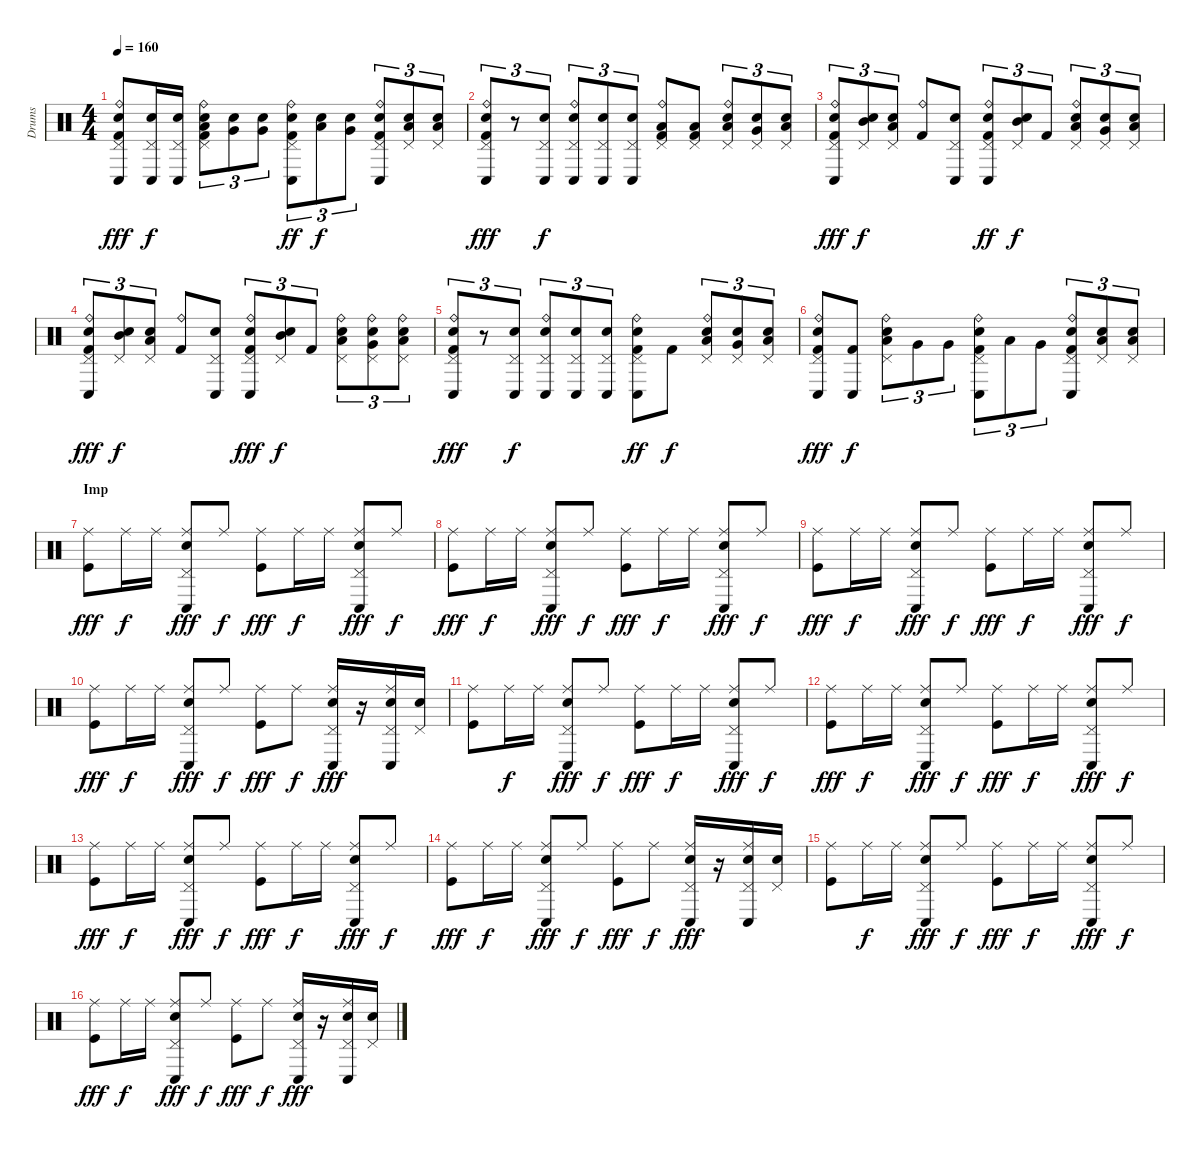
\track ("Drums" "Drums") {instrument percussion}
\staff {score}
\articulation defaults
\ts (4 4)
\tempo 160
\clef neutral
\ks c
("Ride (bell)" "Pedal Hi-Hat (hit)" "Conga low (hit)" "Electric Snare (hit)" "Kick (hit) 2").8{dy fff} ("Pedal Hi-Hat (hit)" "Conga low (hit)" "Electric Snare (hit)").16{dy f} ("Pedal Hi-Hat (hit)" "Conga low (hit)" "Electric Snare (hit)").16 ("Ride (bell)" "Pedal Hi-Hat (hit)" "Low Floor Tom (hit)" "Electric Snare (hit)" "Kick (hit) 2").8{tu (3 2)} ("Very Low Tom (hit)" "Electric Snare (hit)").8{tu (3 2)} ("Very Low Tom (hit)" "Electric Snare (hit)").8{tu (3 2)} ("Ride (bell)" "Pedal Hi-Hat (hit)" "Conga low (hit)" "Electric Snare (hit)" "Kick (hit) 2").8{tu (3 2) dy ff} ("Low Tom (hit)" "Electric Snare (hit)").8{tu (3 2) dy f} ("Very Low Tom (hit)" "Electric Snare (hit)").8{tu (3 2)} ("Ride (bell)" "Pedal Hi-Hat (hit)" "Conga low (hit)" "Electric Snare (hit)" "Kick (hit) 2").8{tu (3 2)} ("Pedal Hi-Hat (hit)" "Low Floor Tom (hit)" "Electric Snare (hit)").8{tu (3 2)} ("Pedal Hi-Hat (hit)" "Low Floor Tom (hit)" "Electric Snare (hit)").8{tu (3 2)} |
("Ride (bell)" "Pedal Hi-Hat (hit)" "Conga low (hit)" "Electric Snare (hit)" "Kick (hit) 2").8{tu (3 2) dy fff} r.8{tu (3 2)} ("Pedal Hi-Hat (hit)" "Conga low (hit)" "Electric Snare (hit)").8{tu (3 2) dy f} ("Ride (bell)" "Pedal Hi-Hat (hit)" "Conga low (hit)" "Electric Snare (hit)").8{tu (3 2)} ("Pedal Hi-Hat (hit)" "Conga low (hit)" "Electric Snare (hit)").8{tu (3 2)} ("Pedal Hi-Hat (hit)" "Conga low (hit)" "Electric Snare (hit)").8{tu (3 2)} ("Ride (bell)" "Pedal Hi-Hat (hit)" "Low Floor Tom (hit)" "Kick (hit) 2").8 ("Pedal Hi-Hat (hit)" "Low Floor Tom (hit)" "Kick (hit) 2").8 ("Ride (bell)" "Pedal Hi-Hat (hit)" "Low Tom (hit)" "Electric Snare (hit)").8{tu (3 2)} ("Pedal Hi-Hat (hit)" "Very Low Tom (hit)" "Electric Snare (hit)").8{tu (3 2)} ("Pedal Hi-Hat (hit)" "Low Floor Tom (hit)" "Electric Snare (hit)").8{tu (3 2)} |
("Ride (bell)" "Pedal Hi-Hat (hit)" "Conga low (hit)" "Electric Snare (hit)" "Kick (hit) 2").8{tu (3 2) dy fff} ("Pedal Hi-Hat (hit)" "Mid Tom (hit)" "Electric Snare (hit)").8{tu (3 2) dy f} ("Pedal Hi-Hat (hit)" "Low Tom (hit)" "Electric Snare (hit)").8{tu (3 2)} ("Ride (bell)" "Kick (hit) 2").8 ("Pedal Hi-Hat (hit)" "Conga low (hit)" "Electric Snare (hit)").8 ("Ride (bell)" "Pedal Hi-Hat (hit)" "Conga low (hit)" "Electric Snare (hit)" "Kick (hit) 2").8{tu (3 2) dy ff} ("Pedal Hi-Hat (hit)" "Mid Tom (hit)" "Electric Snare (hit)").8{tu (3 2) dy f} "Kick (hit) 2".8{tu (3 2)} ("Ride (bell)" "Pedal Hi-Hat (hit)" "Low Tom (hit)" "Electric Snare (hit)").8{tu (3 2)} ("Pedal Hi-Hat (hit)" "Very Low Tom (hit)" "Electric Snare (hit)").8{tu (3 2)} ("Pedal Hi-Hat (hit)" "Low Floor Tom (hit)" "Electric Snare (hit)").8{tu (3 2)} |
("Ride (bell)" "Pedal Hi-Hat (hit)" "Conga low (hit)" "Electric Snare (hit)" "Kick (hit) 2").8{tu (3 2) dy fff} ("Pedal Hi-Hat (hit)" "Mid Tom (hit)" "Electric Snare (hit)").8{tu (3 2) dy f} ("Pedal Hi-Hat (hit)" "Low Tom (hit)" "Electric Snare (hit)").8{tu (3 2)} ("Ride (bell)" "Kick (hit) 2").8 ("Pedal Hi-Hat (hit)" "Conga low (hit)" "Electric Snare (hit)").8 ("Ride (bell)" "Pedal Hi-Hat (hit)" "Conga low (hit)" "Electric Snare (hit)" "Kick (hit) 2").8{tu (3 2) dy fff} ("Pedal Hi-Hat (hit)" "Mid Tom (hit)" "Electric Snare (hit)").8{tu (3 2) dy f} "Kick (hit) 2".8{tu (3 2)} ("Ride (bell)" "Pedal Hi-Hat (hit)" "Low Tom (hit)" "Electric Snare (hit)").8{tu (3 2)} ("Ride (bell)" "Pedal Hi-Hat (hit)" "Very Low Tom (hit)" "Electric Snare (hit)").8{tu (3 2)} ("Ride (bell)" "Pedal Hi-Hat (hit)" "Low Floor Tom (hit)" "Electric Snare (hit)").8{tu (3 2)} |
("Ride (bell)" "Pedal Hi-Hat (hit)" "Conga low (hit)" "Electric Snare (hit)" "Kick (hit) 2").8{tu (3 2) dy fff} r.8{tu (3 2)} ("Pedal Hi-Hat (hit)" "Conga low (hit)" "Electric Snare (hit)").8{tu (3 2) dy f} ("Ride (bell)" "Pedal Hi-Hat (hit)" "Conga low (hit)" "Electric Snare (hit)").8{tu (3 2)} ("Pedal Hi-Hat (hit)" "Conga low (hit)" "Electric Snare (hit)").8{tu (3 2)} ("Pedal Hi-Hat (hit)" "Conga low (hit)" "Electric Snare (hit)").8{tu (3 2)} ("Ride (bell)" "Pedal Hi-Hat (hit)" "Conga low (hit)" "Electric Snare (hit)" "Kick (hit) 2").8{dy ff} "Kick (hit) 2".8{dy f} ("Ride (bell)" "Pedal Hi-Hat (hit)" "Low Tom (hit)" "Electric Snare (hit)").8{tu (3 2)} ("Pedal Hi-Hat (hit)" "Very Low Tom (hit)" "Electric Snare (hit)").8{tu (3 2)} ("Pedal Hi-Hat (hit)" "Low Floor Tom (hit)" "Electric Snare (hit)").8{tu (3 2)} |
("Ride (bell)" "Pedal Hi-Hat (hit)" "Conga low (hit)" "Electric Snare (hit)" "Kick (hit) 2").8{dy fff} ("Conga low (hit)" "Kick (hit) 2").8{dy f} ("Ride (bell)" "Pedal Hi-Hat (hit)" "Low Floor Tom (hit)" "Electric Snare (hit)").8{tu (3 2)} "Very Low Tom (hit)".8{tu (3 2)} "Very Low Tom (hit)".8{tu (3 2)} ("Ride (bell)" "Pedal Hi-Hat (hit)" "Conga low (hit)" "Electric Snare (hit)" "Kick (hit) 2").8{tu (3 2)} "Low Tom (hit)".8{tu (3 2)} "Very Low Tom (hit)".8{tu (3 2)} ("Ride (bell)" "Pedal Hi-Hat (hit)" "Conga low (hit)" "Electric Snare (hit)" "Kick (hit) 2").8{tu (3 2)} ("Pedal Hi-Hat (hit)" "Low Floor Tom (hit)" "Electric Snare (hit)").8{tu (3 2)} ("Pedal Hi-Hat (hit)" "Low Floor Tom (hit)" "Electric Snare (hit)").8{tu (3 2)} |
\section ("" "Imp")
("Ride (middle)" "Kick (hit)").8{dy fff} "Ride (middle)".16{dy f} "Ride (middle)".16 ("Ride (middle)" "Pedal Hi-Hat (hit)" "Conga low (hit)" "Electric Snare (hit)").8{dy fff} "Ride (middle)".8{dy f} ("Ride (middle)" "Kick (hit)").8{dy fff} "Ride (middle)".16{dy f} "Ride (middle)".16 ("Ride (middle)" "Pedal Hi-Hat (hit)" "Conga low (hit)" "Electric Snare (hit)").8{dy fff} "Ride (middle)".8{dy f} |
("Ride (middle)" "Kick (hit)").8{dy fff} "Ride (middle)".16{dy f} "Ride (middle)".16 ("Ride (middle)" "Pedal Hi-Hat (hit)" "Conga low (hit)" "Electric Snare (hit)").8{dy fff} "Ride (middle)".8{dy f} ("Ride (middle)" "Kick (hit)").8{dy fff} "Ride (middle)".16{dy f} "Ride (middle)".16 ("Ride (middle)" "Pedal Hi-Hat (hit)" "Conga low (hit)" "Electric Snare (hit)").8{dy fff} "Ride (middle)".8{dy f} |
("Ride (middle)" "Kick (hit)").8{dy fff} "Ride (middle)".16{dy f} "Ride (middle)".16 ("Ride (middle)" "Pedal Hi-Hat (hit)" "Conga low (hit)" "Electric Snare (hit)").8{dy fff} "Ride (middle)".8{dy f} ("Ride (middle)" "Kick (hit)").8{dy fff} "Ride (middle)".16{dy f} "Ride (middle)".16 ("Ride (middle)" "Pedal Hi-Hat (hit)" "Conga low (hit)" "Electric Snare (hit)").8{dy fff} "Ride (middle)".8{dy f} |
("Ride (middle)" "Kick (hit)").8{dy fff} "Ride (middle)".16{dy f} "Ride (middle)".16 ("Ride (middle)" "Pedal Hi-Hat (hit)" "Conga low (hit)" "Electric Snare (hit)").8{dy fff} "Ride (middle)".8{dy f} ("Ride (middle)" "Kick (hit)").8{dy fff} "Ride (middle)".8{dy f} ("Ride (middle)" "Pedal Hi-Hat (hit)" "Conga low (hit)" "Electric Snare (hit)").16{dy fff} r.16 ("Ride (middle)" "Pedal Hi-Hat (hit)" "Conga low (hit)" "Electric Snare (hit)").16 ("Pedal Hi-Hat (hit)" "Electric Snare (hit)").16 |
("Ride (middle)" "Kick (hit)").8 "Ride (middle)".16{dy f} "Ride (middle)".16 ("Ride (middle)" "Pedal Hi-Hat (hit)" "Conga low (hit)" "Electric Snare (hit)").8{dy fff} "Ride (middle)".8{dy f} ("Ride (middle)" "Kick (hit)").8{dy fff} "Ride (middle)".16{dy f} "Ride (middle)".16 ("Ride (middle)" "Pedal Hi-Hat (hit)" "Conga low (hit)" "Electric Snare (hit)").8{dy fff} "Ride (middle)".8{dy f} |
("Ride (middle)" "Kick (hit)").8{dy fff} "Ride (middle)".16{dy f} "Ride (middle)".16 ("Ride (middle)" "Pedal Hi-Hat (hit)" "Conga low (hit)" "Electric Snare (hit)").8{dy fff} "Ride (middle)".8{dy f} ("Ride (middle)" "Kick (hit)").8{dy fff} "Ride (middle)".16{dy f} "Ride (middle)".16 ("Ride (middle)" "Pedal Hi-Hat (hit)" "Conga low (hit)" "Electric Snare (hit)").8{dy fff} "Ride (middle)".8{dy f} |
("Ride (middle)" "Kick (hit)").8{dy fff} "Ride (middle)".16{dy f} "Ride (middle)".16 ("Ride (middle)" "Pedal Hi-Hat (hit)" "Conga low (hit)" "Electric Snare (hit)").8{dy fff} "Ride (middle)".8{dy f} ("Ride (middle)" "Kick (hit)").8{dy fff} "Ride (middle)".16{dy f} "Ride (middle)".16 ("Ride (middle)" "Pedal Hi-Hat (hit)" "Conga low (hit)" "Electric Snare (hit)").8{dy fff} "Ride (middle)".8{dy f} |
("Ride (middle)" "Kick (hit)").8{dy fff} "Ride (middle)".16{dy f} "Ride (middle)".16 ("Ride (middle)" "Pedal Hi-Hat (hit)" "Conga low (hit)" "Electric Snare (hit)").8{dy fff} "Ride (middle)".8{dy f} ("Ride (middle)" "Kick (hit)").8{dy fff} "Ride (middle)".8{dy f} ("Ride (middle)" "Pedal Hi-Hat (hit)" "Conga low (hit)" "Electric Snare (hit)").16{dy fff} r.16 ("Ride (middle)" "Pedal Hi-Hat (hit)" "Conga low (hit)" "Electric Snare (hit)").16 ("Pedal Hi-Hat (hit)" "Electric Snare (hit)").16 |
("Ride (middle)" "Kick (hit)").8 "Ride (middle)".16{dy f} "Ride (middle)".16 ("Ride (middle)" "Pedal Hi-Hat (hit)" "Conga low (hit)" "Electric Snare (hit)").8{dy fff} "Ride (middle)".8{dy f} ("Ride (middle)" "Kick (hit)").8{dy fff} "Ride (middle)".16{dy f} "Ride (middle)".16 ("Ride (middle)" "Pedal Hi-Hat (hit)" "Conga low (hit)" "Electric Snare (hit)").8{dy fff} "Ride (middle)".8{dy f} |
("Ride (middle)" "Kick (hit)").8{dy fff} "Ride (middle)".16{dy f} "Ride (middle)".16 ("Ride (middle)" "Pedal Hi-Hat (hit)" "Conga low (hit)" "Electric Snare (hit)").8{dy fff} "Ride (middle)".8{dy f} ("Ride (middle)" "Kick (hit)").8{dy fff} "Ride (middle)".8{dy f} ("Ride (middle)" "Pedal Hi-Hat (hit)" "Conga low (hit)" "Electric Snare (hit)").16{dy fff} r.16 ("Ride (middle)" "Pedal Hi-Hat (hit)" "Conga low (hit)" "Electric Snare (hit)").16 ("Pedal Hi-Hat (hit)" "Electric Snare (hit)").16
